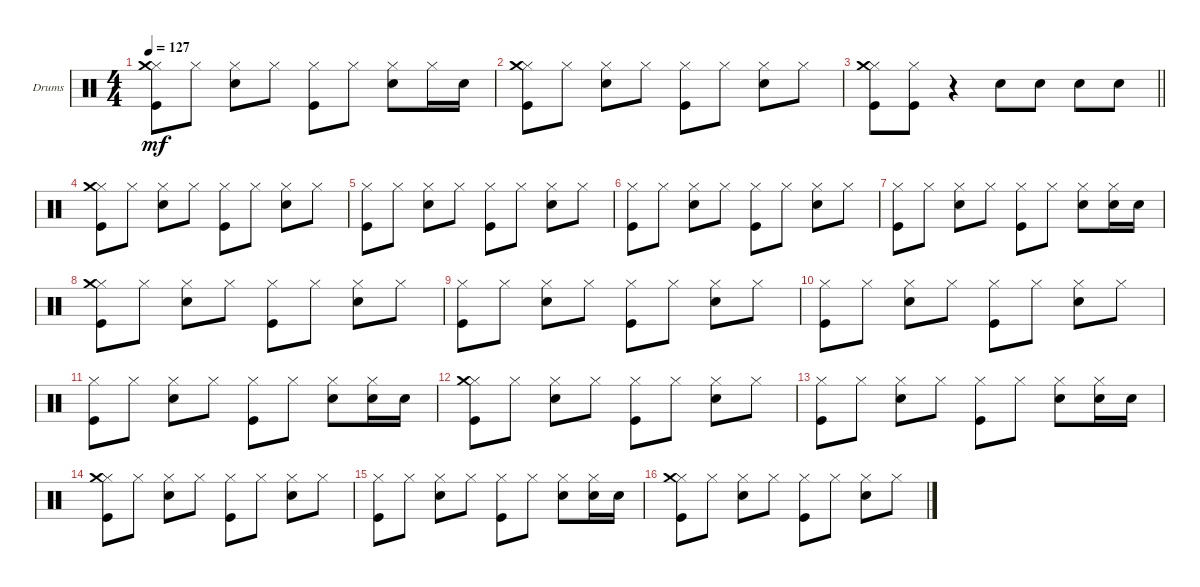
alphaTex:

\defaultSystemsLayout 4
\bracketExtendMode groupsimilarinstruments
\firstSystemTrackNameOrientation horizontal
\otherSystemsTrackNameOrientation horizontal
\track ("Drumkit" "Drums") {instrument percussion}
\staff {score}
\articulation defaults
\ts (4 4)
\tempo 127
\clef neutral
\scale
0.25
\ks c
("Kick (hit)" "Hi-Hat (closed)" "Crash medium (hit)").8{dy mf} "Hi-Hat (closed)".8 ("Snare (hit) 2" "Hi-Hat (closed)").8 "Hi-Hat (closed)".8 ("Kick (hit)" "Hi-Hat (closed)").8 "Hi-Hat (closed)".8 ("Snare (hit) 2" "Hi-Hat (closed)").8 "Hi-Hat (closed)".16 "Snare (hit) 2".16 |
\scale
0.25 ("Kick (hit)" "Hi-Hat (closed)" "Crash medium (hit)").8 "Hi-Hat (closed)".8 ("Snare (hit) 2" "Hi-Hat (closed)").8 "Hi-Hat (closed)".8 ("Kick (hit)" "Hi-Hat (closed)").8 "Hi-Hat (closed)".8 ("Snare (hit) 2" "Hi-Hat (closed)").8 "Hi-Hat (closed)".8 |
\scale
0.25
\barLineRight lightlight
("Kick (hit)" "Hi-Hat (closed)" "Crash medium (hit)").8 ("Kick (hit)" "Hi-Hat (closed)").8 r.4 "Snare (hit) 2".8 "Snare (hit) 2".8 "Snare (hit) 2".8 "Snare (hit) 2".8 |
\scale
0.25 ("Kick (hit)" "Hi-Hat (closed)" "Crash medium (hit)").8 "Hi-Hat (closed)".8 ("Snare (hit) 2" "Hi-Hat (closed)").8 "Hi-Hat (closed)".8 ("Kick (hit)" "Hi-Hat (closed)").8 "Hi-Hat (closed)".8 ("Snare (hit) 2" "Hi-Hat (closed)").8 "Hi-Hat (closed)".8 |
\scale
0.25 ("Kick (hit)" "Hi-Hat (closed)").8 "Hi-Hat (closed)".8 ("Snare (hit) 2" "Hi-Hat (closed)").8 "Hi-Hat (closed)".8 ("Kick (hit)" "Hi-Hat (closed)").8 "Hi-Hat (closed)".8 ("Snare (hit) 2" "Hi-Hat (closed)").8 "Hi-Hat (closed)".8 |
\scale
0.25 ("Kick (hit)" "Hi-Hat (closed)").8 "Hi-Hat (closed)".8 ("Snare (hit) 2" "Hi-Hat (closed)").8 "Hi-Hat (closed)".8 ("Kick (hit)" "Hi-Hat (closed)").8 "Hi-Hat (closed)".8 ("Snare (hit) 2" "Hi-Hat (closed)").8 "Hi-Hat (closed)".8 |
\scale
0.25 ("Kick (hit)" "Hi-Hat (closed)").8 "Hi-Hat (closed)".8 ("Snare (hit) 2" "Hi-Hat (closed)").8 "Hi-Hat (closed)".8 ("Kick (hit)" "Hi-Hat (closed)").8 "Hi-Hat (closed)".8 ("Snare (hit) 2" "Hi-Hat (closed)").8 ("Snare (hit) 2" "Hi-Hat (closed)").16 "Snare (hit) 2".16 |
\scale
0.25 ("Kick (hit)" "Hi-Hat (closed)" "Crash medium (hit)").8 "Hi-Hat (closed)".8 ("Snare (hit) 2" "Hi-Hat (closed)").8 "Hi-Hat (closed)".8 ("Kick (hit)" "Hi-Hat (closed)").8 "Hi-Hat (closed)".8 ("Snare (hit) 2" "Hi-Hat (closed)").8 "Hi-Hat (closed)".8 |
\scale
0.25 ("Kick (hit)" "Hi-Hat (closed)").8 "Hi-Hat (closed)".8 ("Snare (hit) 2" "Hi-Hat (closed)").8 "Hi-Hat (closed)".8 ("Kick (hit)" "Hi-Hat (closed)").8 "Hi-Hat (closed)".8 ("Snare (hit) 2" "Hi-Hat (closed)").8 "Hi-Hat (closed)".8 |
\scale
0.25 ("Kick (hit)" "Hi-Hat (closed)").8 "Hi-Hat (closed)".8 ("Snare (hit) 2" "Hi-Hat (closed)").8 "Hi-Hat (closed)".8 ("Kick (hit)" "Hi-Hat (closed)").8 "Hi-Hat (closed)".8 ("Snare (hit) 2" "Hi-Hat (closed)").8 "Hi-Hat (closed)".8 |
\scale
0.25 ("Kick (hit)" "Hi-Hat (closed)").8 "Hi-Hat (closed)".8 ("Snare (hit) 2" "Hi-Hat (closed)").8 "Hi-Hat (closed)".8 ("Kick (hit)" "Hi-Hat (closed)").8 "Hi-Hat (closed)".8 ("Snare (hit) 2" "Hi-Hat (closed)").8 ("Snare (hit) 2" "Hi-Hat (closed)").16 "Snare (hit) 2".16 |
\scale
0.25 ("Kick (hit)" "Hi-Hat (closed)" "Crash medium (hit)").8 "Hi-Hat (closed)".8 ("Snare (hit) 2" "Hi-Hat (closed)").8 "Hi-Hat (closed)".8 ("Kick (hit)" "Hi-Hat (closed)").8 "Hi-Hat (closed)".8 ("Snare (hit) 2" "Hi-Hat (closed)").8 "Hi-Hat (closed)".8 |
\scale
0.25 ("Kick (hit)" "Hi-Hat (closed)").8 "Hi-Hat (closed)".8 ("Snare (hit) 2" "Hi-Hat (closed)").8 "Hi-Hat (closed)".8 ("Kick (hit)" "Hi-Hat (closed)").8 "Hi-Hat (closed)".8 ("Snare (hit) 2" "Hi-Hat (closed)").8 ("Snare (hit) 2" "Hi-Hat (closed)").16 "Snare (hit) 2".16 |
\scale
0.25 ("Kick (hit)" "Hi-Hat (closed)" "Crash medium (hit)").8 "Hi-Hat (closed)".8 ("Snare (hit) 2" "Hi-Hat (closed)").8 "Hi-Hat (closed)".8 ("Kick (hit)" "Hi-Hat (closed)").8 "Hi-Hat (closed)".8 ("Snare (hit) 2" "Hi-Hat (closed)").8 "Hi-Hat (closed)".8 |
\scale
0.25 ("Kick (hit)" "Hi-Hat (closed)").8 "Hi-Hat (closed)".8 ("Snare (hit) 2" "Hi-Hat (closed)").8 "Hi-Hat (closed)".8 ("Kick (hit)" "Hi-Hat (closed)").8 "Hi-Hat (closed)".8 ("Snare (hit) 2" "Hi-Hat (closed)").8 ("Snare (hit) 2" "Hi-Hat (closed)").16 "Snare (hit) 2".16 |
\scale
0.25 ("Kick (hit)" "Hi-Hat (closed)" "Crash medium (hit)").8 "Hi-Hat (closed)".8 ("Snare (hit) 2" "Hi-Hat (closed)").8 "Hi-Hat (closed)".8 ("Kick (hit)" "Hi-Hat (closed)").8 "Hi-Hat (closed)".8 ("Snare (hit) 2" "Hi-Hat (closed)").8 "Hi-Hat (closed)".8
